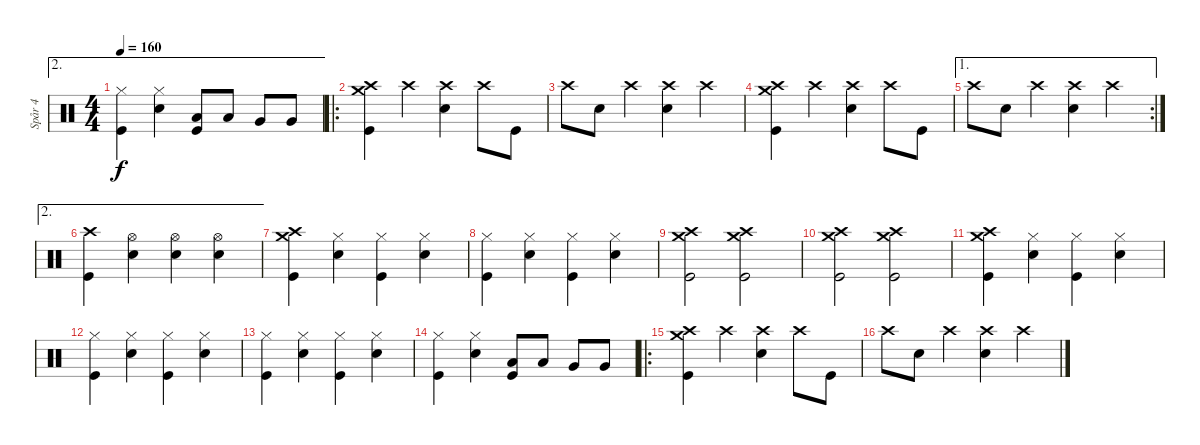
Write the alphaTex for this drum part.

\track ("Spår 4" "Spår 4") {instrument percussion}
\staff {score}
\articulation defaults
\ae 2
\ts (4 4)
\tempo 160
\clef neutral
\ks c
("Hi-Hat (closed)" "Kick (hit)").4{dy f} ("Hi-Hat (closed)" "Snare (hit) 2").4 ("Low Tom (hit)" "Kick (hit)").8 "Low Tom (hit)".8 "Very Low Tom (hit)".8 "Very Low Tom (hit)".8 |
\ro
("Crash medium (hit)" "Crash high (hit)" "Kick (hit)").4 "Crash high (hit)".4 ("Crash high (hit)" "Snare (hit) 2").4 "Crash high (hit)".8 "Kick (hit)".8 |
"Crash high (hit)".8 "Snare (hit) 2".8 "Crash high (hit)".4 ("Crash high (hit)" "Snare (hit) 2").4 "Crash high (hit)".4 |
("Crash medium (hit)" "Crash high (hit)" "Kick (hit)").4 "Crash high (hit)".4 ("Crash high (hit)" "Snare (hit) 2").4 "Crash high (hit)".8 "Kick (hit)".8 |
\ae 1
\rc 2 "Crash high (hit)".8 "Snare (hit) 2".8 "Crash high (hit)".4
("Crash high (hit)" "Snare (hit) 2").4 "Crash high (hit)".4 |
\ae 2
("Crash high (hit)" "Kick (hit)").4 ("Hi-Hat (open)" "Snare (hit) 2").4 ("Hi-Hat (open)" "Snare (hit) 2").4 ("Hi-Hat (open)" "Snare (hit) 2").4 |
("Crash medium (hit)" "Crash high (hit)" "Kick (hit)").4 ("Hi-Hat (closed)" "Snare (hit) 2").4 ("Hi-Hat (closed)" "Kick (hit)").4 ("Hi-Hat (closed)" "Snare (hit) 2").4 |
("Hi-Hat (closed)" "Kick (hit)").4 ("Hi-Hat (closed)" "Snare (hit) 2").4 ("Hi-Hat (closed)" "Kick (hit)").4 ("Hi-Hat (closed)" "Snare (hit) 2").4 |
("Crash medium (hit)" "Crash high (hit)" "Kick (hit)").2 ("Crash medium (hit)" "Crash high (hit)" "Kick (hit)").2 |
("Crash medium (hit)" "Crash high (hit)" "Kick (hit)").2 ("Crash medium (hit)" "Crash high (hit)" "Kick (hit)").2 |
("Crash medium (hit)" "Crash high (hit)" "Kick (hit)").4 ("Hi-Hat (closed)" "Snare (hit) 2").4 ("Hi-Hat (closed)" "Kick (hit)").4 ("Hi-Hat (closed)" "Snare (hit) 2").4 |
("Hi-Hat (closed)" "Kick (hit)").4 ("Hi-Hat (closed)" "Snare (hit) 2").4 ("Hi-Hat (closed)" "Kick (hit)").4 ("Hi-Hat (closed)" "Snare (hit) 2").4 |
("Hi-Hat (closed)" "Kick (hit)").4 ("Hi-Hat (closed)" "Snare (hit) 2").4 ("Hi-Hat (closed)" "Kick (hit)").4 ("Hi-Hat (closed)" "Snare (hit) 2").4 |
("Hi-Hat (closed)" "Kick (hit)").4 ("Hi-Hat (closed)" "Snare (hit) 2").4 ("Low Tom (hit)" "Kick (hit)").8 "Low Tom (hit)".8 "Very Low Tom (hit)".8 "Very Low Tom (hit)".8 |
\ro
("Crash medium (hit)" "Crash high (hit)" "Kick (hit)").4 "Crash high (hit)".4 ("Crash high (hit)" "Snare (hit) 2").4 "Crash high (hit)".8 "Kick (hit)".8 |
"Crash high (hit)".8 "Snare (hit) 2".8 "Crash high (hit)".4 ("Crash high (hit)" "Snare (hit) 2").4 "Crash high (hit)".4
